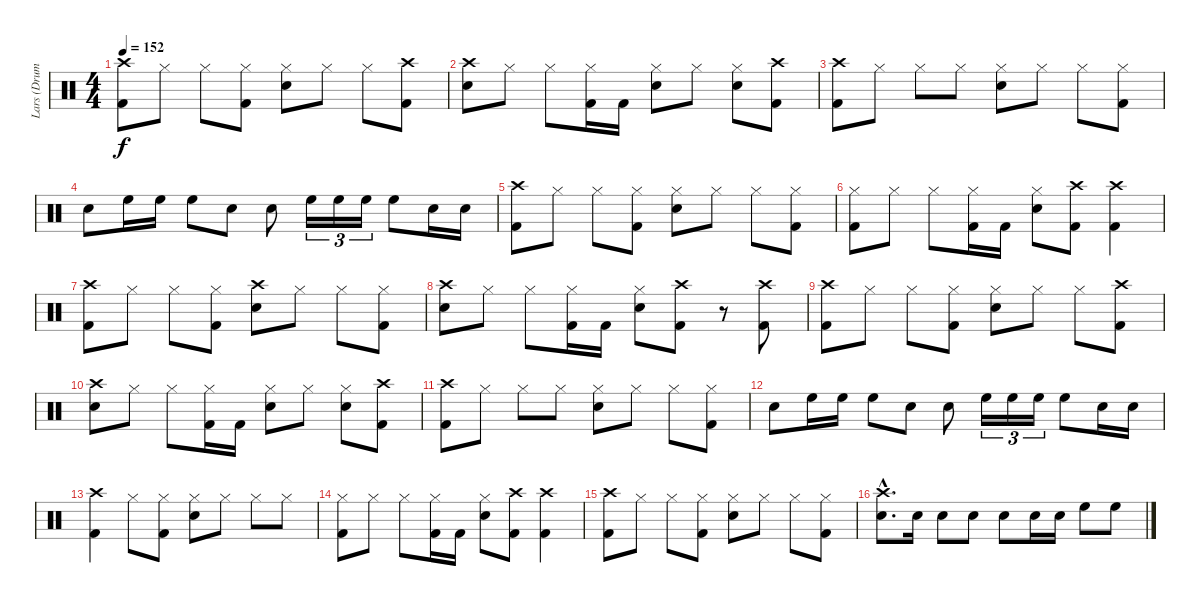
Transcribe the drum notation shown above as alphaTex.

\track ("Lars (Drums)" "Lars (Drum") {instrument percussion}
\staff {score}
\articulation defaults
\ts (4 4)
\tempo 152
\clef neutral
\ks c
("Crash high (hit)" "Kick (hit) 2").8{dy f} "Hi-Hat (closed)".8 "Hi-Hat (closed)".8 ("Hi-Hat (closed)" "Kick (hit) 2").8 ("Hi-Hat (closed)" "Snare (hit) 2").8 "Hi-Hat (closed)".8 "Hi-Hat (closed)".8 ("Crash high (hit)" "Kick (hit) 2").8 |
("Crash high (hit)" "Snare (hit) 2").8 "Hi-Hat (closed)".8 "Hi-Hat (closed)".8 ("Hi-Hat (closed)" "Kick (hit) 2").16 "Kick (hit) 2".16 ("Hi-Hat (closed)" "Snare (hit) 2").8 "Hi-Hat (closed)".8 ("Hi-Hat (closed)" "Snare (hit) 2").8 ("Crash high (hit)" "Kick (hit) 2").8 |
("Crash high (hit)" "Kick (hit) 2").8 "Hi-Hat (closed)".8 "Hi-Hat (closed)".8 "Hi-Hat (closed)".8 ("Hi-Hat (closed)" "Snare (hit) 2").8 "Hi-Hat (closed)".8 "Hi-Hat (closed)".8 ("Hi-Hat (closed)" "Kick (hit) 2").8 |
"Snare (hit) 2".8 "High Floor Tom (hit)".16 "High Floor Tom (hit)".16 "High Floor Tom (hit)".8 "Snare (hit) 2".8 "Snare (hit) 2".8 "High Floor Tom (hit)".16{tu (3 2)} "High Floor Tom (hit)".16{tu (3 2)} "High Floor Tom (hit)".16{tu (3 2)} "High Floor Tom (hit)".8 "Snare (hit) 2".16 "Snare (hit) 2".16 |
("Crash high (hit)" "Kick (hit) 2").8 "Hi-Hat (closed)".8 "Hi-Hat (closed)".8 ("Hi-Hat (closed)" "Kick (hit) 2").8 ("Hi-Hat (closed)" "Snare (hit) 2").8 "Hi-Hat (closed)".8 "Hi-Hat (closed)".8 ("Hi-Hat (closed)" "Kick (hit) 2").8 |
("Hi-Hat (closed)" "Kick (hit) 2").8 "Hi-Hat (closed)".8 "Hi-Hat (closed)".8 ("Hi-Hat (closed)" "Kick (hit) 2").16 "Kick (hit) 2".16 ("Hi-Hat (closed)" "Snare (hit) 2").8 ("Crash high (hit)" "Kick (hit) 2").8 ("Crash high (hit)" "Kick (hit) 2").4 |
("Crash high (hit)" "Kick (hit) 2").8 "Hi-Hat (closed)".8 "Hi-Hat (closed)".8 ("Hi-Hat (closed)" "Kick (hit) 2").8 ("Crash high (hit)" "Snare (hit) 2").8 "Hi-Hat (closed)".8 "Hi-Hat (closed)".8 ("Hi-Hat (closed)" "Kick (hit) 2").8 |
("Crash high (hit)" "Snare (hit) 2").8 "Hi-Hat (closed)".8 "Hi-Hat (closed)".8 ("Hi-Hat (closed)" "Kick (hit) 2").16 "Kick (hit) 2".16 ("Hi-Hat (closed)" "Snare (hit) 2").8 ("Crash high (hit)" "Kick (hit) 2").8 r.8 ("Crash high (hit)" "Kick (hit) 2").8 |
("Crash high (hit)" "Kick (hit) 2").8 "Hi-Hat (closed)".8 "Hi-Hat (closed)".8 ("Hi-Hat (closed)" "Kick (hit) 2").8 ("Hi-Hat (closed)" "Snare (hit) 2").8 "Hi-Hat (closed)".8 "Hi-Hat (closed)".8 ("Crash high (hit)" "Kick (hit) 2").8 |
("Crash high (hit)" "Snare (hit) 2").8 "Hi-Hat (closed)".8 "Hi-Hat (closed)".8 ("Hi-Hat (closed)" "Kick (hit) 2").16 "Kick (hit) 2".16 ("Hi-Hat (closed)" "Snare (hit) 2").8 "Hi-Hat (closed)".8 ("Hi-Hat (closed)" "Snare (hit) 2").8 ("Crash high (hit)" "Kick (hit) 2").8 |
("Crash high (hit)" "Kick (hit) 2").8 "Hi-Hat (closed)".8 "Hi-Hat (closed)".8 "Hi-Hat (closed)".8 ("Hi-Hat (closed)" "Snare (hit) 2").8 "Hi-Hat (closed)".8 "Hi-Hat (closed)".8 ("Hi-Hat (closed)" "Kick (hit) 2").8 |
"Snare (hit) 2".8 "High Floor Tom (hit)".16 "High Floor Tom (hit)".16 "High Floor Tom (hit)".8 "Snare (hit) 2".8 "Snare (hit) 2".8 "High Floor Tom (hit)".16{tu (3 2)} "High Floor Tom (hit)".16{tu (3 2)} "High Floor Tom (hit)".16{tu (3 2)} "High Floor Tom (hit)".8 "Snare (hit) 2".16 "Snare (hit) 2".16 |
("Crash high (hit)" "Kick (hit) 2").4 "Hi-Hat (closed)".8 ("Hi-Hat (closed)" "Kick (hit) 2").8 ("Hi-Hat (closed)" "Snare (hit) 2").8 "Hi-Hat (closed)".8 "Hi-Hat (closed)".8 "Hi-Hat (closed)".8 |
("Hi-Hat (closed)" "Kick (hit) 2").8 "Hi-Hat (closed)".8 "Hi-Hat (closed)".8 ("Hi-Hat (closed)" "Kick (hit) 2").16 "Kick (hit) 2".16 ("Hi-Hat (closed)" "Snare (hit) 2").8 ("Crash high (hit)" "Kick (hit) 2").8 ("Crash high (hit)" "Kick (hit) 2").4 |
("Crash high (hit)" "Kick (hit) 2").8 "Hi-Hat (closed)".8 "Hi-Hat (closed)".8 ("Hi-Hat (closed)" "Kick (hit) 2").8 ("Hi-Hat (closed)" "Snare (hit) 2").8 "Hi-Hat (closed)".8 "Hi-Hat (closed)".8 ("Hi-Hat (closed)" "Kick (hit) 2").8 |
("Crash high (hit)"{hac} "Snare (hit) 2"{hac}).8{d} "Snare (hit) 2".16 "Snare (hit) 2".8 "Snare (hit) 2".8 "Snare (hit) 2".8 "Snare (hit) 2".16 "Snare (hit) 2".16 "High Floor Tom (hit)".8 "High Floor Tom (hit)".8
